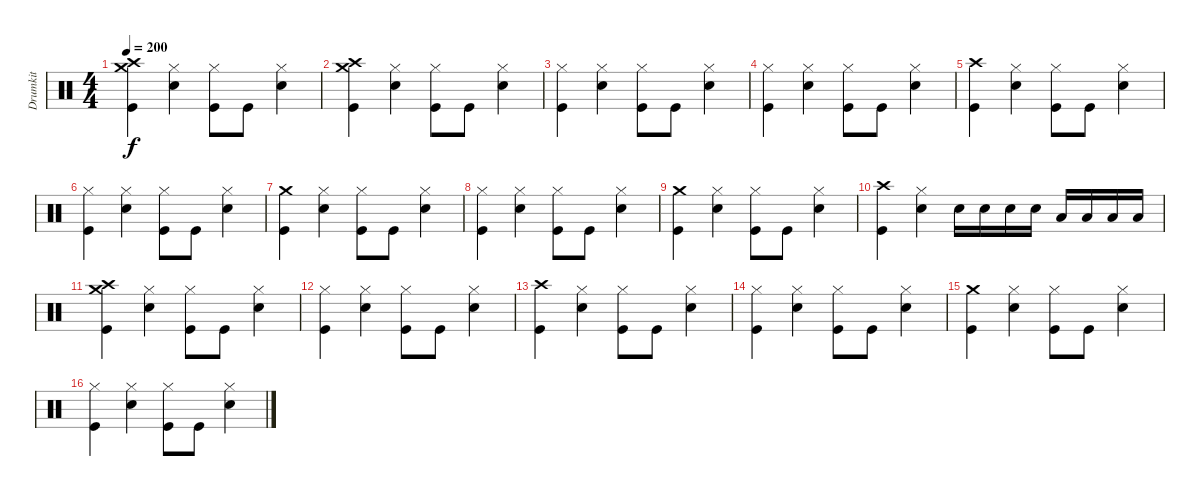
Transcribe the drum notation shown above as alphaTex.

\track ("Drumkit" "Drumkit") {instrument percussion}
\staff {score}
\articulation defaults
\ts (4 4)
\tempo 200
\clef neutral
\ks c
("Crash medium (hit)" "Crash high (hit)" "Kick (hit)").4{dy f} ("Hi-Hat (closed)" "Snare (hit) 2").4 ("Hi-Hat (closed)" "Kick (hit)").8 "Kick (hit)".8 ("Hi-Hat (closed)" "Snare (hit) 2").4 |
("Crash medium (hit)" "Crash high (hit)" "Kick (hit)").4 ("Hi-Hat (closed)" "Snare (hit) 2").4 ("Hi-Hat (closed)" "Kick (hit)").8 "Kick (hit)".8 ("Hi-Hat (closed)" "Snare (hit) 2").4 |
("Hi-Hat (closed)" "Kick (hit)").4 ("Hi-Hat (closed)" "Snare (hit) 2").4 ("Hi-Hat (closed)" "Kick (hit)").8 "Kick (hit)".8 ("Hi-Hat (closed)" "Snare (hit) 2").4 |
("Hi-Hat (closed)" "Kick (hit)").4 ("Hi-Hat (closed)" "Snare (hit) 2").4 ("Hi-Hat (closed)" "Kick (hit)").8 "Kick (hit)".8 ("Hi-Hat (closed)" "Snare (hit) 2").4 |
("Crash high (hit)" "Kick (hit)").4 ("Hi-Hat (closed)" "Snare (hit) 2").4 ("Hi-Hat (closed)" "Kick (hit)").8 "Kick (hit)".8 ("Hi-Hat (closed)" "Snare (hit) 2").4 |
("Hi-Hat (closed)" "Kick (hit)").4 ("Hi-Hat (closed)" "Snare (hit) 2").4 ("Hi-Hat (closed)" "Kick (hit)").8 "Kick (hit)".8 ("Hi-Hat (closed)" "Snare (hit) 2").4 |
("Crash medium (hit)" "Kick (hit)").4 ("Hi-Hat (closed)" "Snare (hit) 2").4 ("Hi-Hat (closed)" "Kick (hit)").8 "Kick (hit)".8 ("Hi-Hat (closed)" "Snare (hit) 2").4 |
("Hi-Hat (closed)" "Kick (hit)").4 ("Hi-Hat (closed)" "Snare (hit) 2").4 ("Hi-Hat (closed)" "Kick (hit)").8 "Kick (hit)".8 ("Hi-Hat (closed)" "Snare (hit) 2").4 |
("Crash medium (hit)" "Kick (hit)").4 ("Hi-Hat (closed)" "Snare (hit) 2").4 ("Hi-Hat (closed)" "Kick (hit)").8 "Kick (hit)".8 ("Hi-Hat (closed)" "Snare (hit) 2").4 |
("Crash high (hit)" "Kick (hit)").4 ("Hi-Hat (closed)" "Snare (hit) 2").4 "Snare (hit) 2".16 "Snare (hit) 2".16 "Snare (hit) 2".16 "Snare (hit) 2".16 "Low Floor Tom (hit)".16 "Low Floor Tom (hit)".16 "Low Tom (hit)".16 "Low Tom (hit)".16 |
("Crash medium (hit)" "Crash high (hit)" "Kick (hit)").4 ("Hi-Hat (closed)" "Snare (hit) 2").4 ("Hi-Hat (closed)" "Kick (hit)").8 "Kick (hit)".8 ("Hi-Hat (closed)" "Snare (hit) 2").4 |
("Hi-Hat (closed)" "Kick (hit)").4 ("Hi-Hat (closed)" "Snare (hit) 2").4 ("Hi-Hat (closed)" "Kick (hit)").8 "Kick (hit)".8 ("Hi-Hat (closed)" "Snare (hit) 2").4 |
("Crash high (hit)" "Kick (hit)").4 ("Hi-Hat (closed)" "Snare (hit) 2").4 ("Hi-Hat (closed)" "Kick (hit)").8 "Kick (hit)".8 ("Hi-Hat (closed)" "Snare (hit) 2").4 |
("Hi-Hat (closed)" "Kick (hit)").4 ("Hi-Hat (closed)" "Snare (hit) 2").4 ("Hi-Hat (closed)" "Kick (hit)").8 "Kick (hit)".8 ("Hi-Hat (closed)" "Snare (hit) 2").4 |
("Crash medium (hit)" "Kick (hit)").4 ("Hi-Hat (closed)" "Snare (hit) 2").4 ("Hi-Hat (closed)" "Kick (hit)").8 "Kick (hit)".8 ("Hi-Hat (closed)" "Snare (hit) 2").4 |
("Hi-Hat (closed)" "Kick (hit)").4 ("Hi-Hat (closed)" "Snare (hit) 2").4 ("Hi-Hat (closed)" "Kick (hit)").8 "Kick (hit)".8 ("Hi-Hat (closed)" "Snare (hit) 2").4
